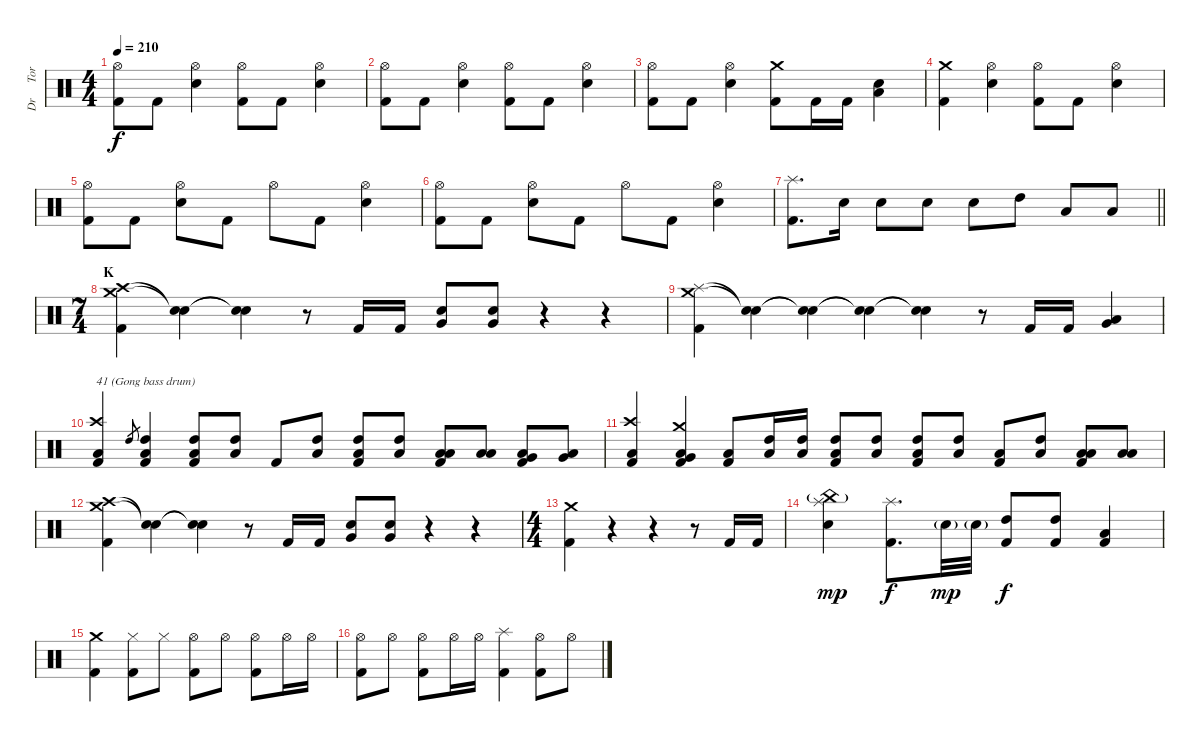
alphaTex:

\track ("Dr     Tora" "Dr     Tor") {instrument percussion}
\staff {score}
\articulation defaults
\ts (4 4)
\tempo 210
\clef neutral
\ks c
("Hi-Hat (open)" "Kick (hit) 2").8{dy f} "Kick (hit) 2".8 ("Hi-Hat (open)" "Electric Snare (hit)").4 ("Hi-Hat (open)" "Kick (hit) 2").8 "Kick (hit) 2".8 ("Hi-Hat (open)" "Electric Snare (hit)").4 |
("Hi-Hat (open)" "Kick (hit) 2").8 "Kick (hit) 2".8 ("Hi-Hat (open)" "Electric Snare (hit)").4 ("Hi-Hat (open)" "Kick (hit) 2").8 "Kick (hit) 2".8 ("Hi-Hat (open)" "Electric Snare (hit)").4 |
("Hi-Hat (open)" "Kick (hit) 2").8 "Kick (hit) 2".8 ("Hi-Hat (open)" "Electric Snare (hit)").4 ("Crash medium (hit)" "Kick (hit) 2").8 "Kick (hit) 2".16 "Kick (hit) 2".16 ("Electric Snare (hit)" "Low Tom (hit)").4 |
("Crash medium (hit)" "Kick (hit) 2").4 ("Hi-Hat (open)" "Electric Snare (hit)").4 ("Hi-Hat (open)" "Kick (hit) 2").8 "Kick (hit) 2".8 ("Hi-Hat (open)" "Electric Snare (hit)").4 |
("Hi-Hat (open)" "Kick (hit) 2").8 "Kick (hit) 2".8 ("Hi-Hat (open)" "Electric Snare (hit)").8 "Kick (hit) 2".8 "Hi-Hat (open)".8 "Kick (hit) 2".8 ("Hi-Hat (open)" "Electric Snare (hit)").4 |
("Hi-Hat (open)" "Kick (hit) 2").8 "Kick (hit) 2".8 ("Hi-Hat (open)" "Electric Snare (hit)").8 "Kick (hit) 2".8 "Hi-Hat (open)".8 "Kick (hit) 2".8 ("Hi-Hat (open)" "Electric Snare (hit)").4 |
\barLineRight lightlight
("Splash (hit)" "Kick (hit) 2").8{d} "Electric Snare (hit)".16 "Electric Snare (hit)".8 "Electric Snare (hit)".8 "Electric Snare (hit)".8 "High Tom (hit)".8 "Low Tom (hit)".8 "Low Tom (hit)".8 |
\ts (7 4)
\section ("" "K")
("Crash medium (hit)" "Crash high (hit)" "Kick (hit) 2").4 ("Snare (hit)"{t} "Snare (hit)"{t}).4 ("Snare (hit)"{t} "Snare (hit)"{t}).4 r.8 "Kick (hit) 2".16 "Kick (hit) 2".16 ("Electric Snare (hit)" "Very Low Tom (hit)").8 ("Electric Snare (hit)" "Very Low Tom (hit)").8 r.4 r.4 |
("Crash medium (hit)" "Splash (hit)" "Kick (hit) 2").4 ("Snare (hit)"{t} "Snare (hit)"{t}).4 ("Snare (hit)"{t} "Snare (hit)"{t}).4 ("Snare (hit)"{t} "Snare (hit)"{t}).4 ("Snare (hit)"{t} "Snare (hit)"{t}).4 r.8 "Kick (hit) 2".16 "Kick (hit) 2".16 ("Very Low Tom (hit)" "Low Tom (hit)").4 |
("Crash high (hit)" "Low Floor Tom (hit)" "Kick (hit) 2").4{txt "41 (Gong bass drum)"} "High Tom (hit)".8{gr} ("High Tom (hit)" "Low Floor Tom (hit)" "Kick (hit) 2").4 ("High Tom (hit)" "Low Floor Tom (hit)" "Kick (hit) 2").8 ("High Tom (hit)" "Low Floor Tom (hit)").8 "Kick (hit) 2".8 ("High Tom (hit)" "Low Floor Tom (hit)").8 ("High Tom (hit)" "Low Floor Tom (hit)" "Kick (hit) 2").8 ("High Tom (hit)" "Low Floor Tom (hit)").8 ("Low Tom (hit)" "Low Floor Tom (hit)" "Kick (hit) 2").8 ("Low Tom (hit)" "Low Floor Tom (hit)").8 ("Very Low Tom (hit)" "Low Floor Tom (hit)" "Kick (hit) 2").8 ("Very Low Tom (hit)" "Low Floor Tom (hit)").8 |
("Crash high (hit)" "Low Floor Tom (hit)" "Kick (hit) 2").4 ("Crash medium (hit)" "Very Low Tom (hit)" "Low Floor Tom (hit)" "Kick (hit) 2").4 ("Low Floor Tom (hit)" "Kick (hit) 2").8 ("High Tom (hit)" "Low Floor Tom (hit)").16 ("High Tom (hit)" "Low Floor Tom (hit)").16 ("High Tom (hit)" "Low Floor Tom (hit)" "Kick (hit) 2").8 ("High Tom (hit)" "Low Floor Tom (hit)").8 ("High Tom (hit)" "Low Floor Tom (hit)" "Kick (hit) 2").8 ("High Tom (hit)" "Low Floor Tom (hit)").8 ("Low Floor Tom (hit)" "Kick (hit) 2").8 ("High Tom (hit)" "Low Floor Tom (hit)").8 ("Low Tom (hit)" "Low Floor Tom (hit)" "Kick (hit) 2").8 ("Low Tom (hit)" "Low Floor Tom (hit)").8 |
("Crash medium (hit)" "Crash high (hit)" "Kick (hit) 2").4 ("Snare (hit)"{t} "Snare (hit)"{t}).4 ("Snare (hit)"{t} "Snare (hit)"{t}).4 r.8 "Kick (hit) 2".16 "Kick (hit) 2".16 ("Electric Snare (hit)" "Very Low Tom (hit)").8 ("Electric Snare (hit)" "Very Low Tom (hit)").8 r.4 r.4 |
\ts (4 4)
("Crash medium (hit)" "Kick (hit) 2").4 r.4 r.4 r.8 "Kick (hit) 2".16 "Kick (hit) 2".16 |
("China (hit)"{g} "Splash (hit)" "Electric Snare (hit)").4{dy mp} ("Splash (hit)" "Kick (hit) 2").8{d dy f} "Electric Snare (hit)"{g}.32{dy mp} "Electric Snare (hit)"{g}.32 ("High Tom (hit)" "Kick (hit) 2").8{dy f} ("High Tom (hit)" "Kick (hit) 2").8 ("Low Tom (hit)" "Kick (hit) 2").4 |
("Crash medium (hit)" "Kick (hit) 2").4 ("Hi-Hat (closed)" "Kick (hit) 2").8 "Hi-Hat (closed)".8 ("Hi-Hat (open)" "Kick (hit) 2").8 "Hi-Hat (open)".8 ("Hi-Hat (open)" "Kick (hit) 2").8 "Hi-Hat (open)".16 "Hi-Hat (open)".16 |
("Hi-Hat (open)" "Kick (hit) 2").8 "Hi-Hat (open)".8 ("Hi-Hat (open)" "Kick (hit) 2").8 "Hi-Hat (open)".16 "Hi-Hat (open)".16 ("Splash (hit)" "Kick (hit) 2").4 ("Hi-Hat (open)" "Kick (hit) 2").8 "Hi-Hat (open)".8
